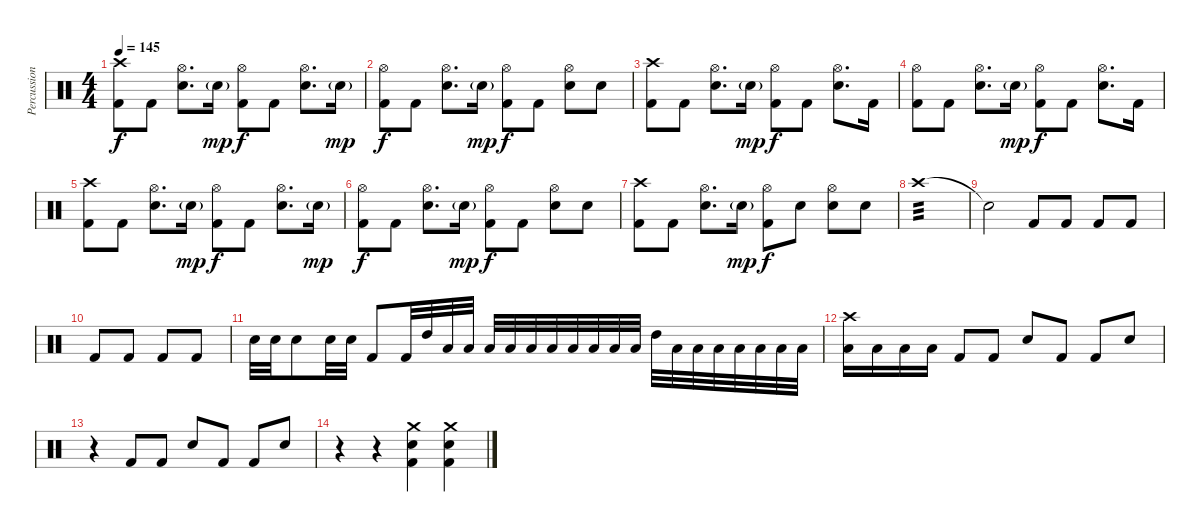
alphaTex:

\track ("Percussion" "Percussion") {instrument percussion}
\staff {score}
\articulation defaults
\ts (4 4)
\tempo 145
\clef neutral
\ks c
("Crash high (hit)" "Kick (hit) 2").8{dy f} "Kick (hit) 2".8 ("Hi-Hat (open)" "Electric Snare (hit)").8{d} "Electric Snare (hit)"{g}.16{dy mp} ("Hi-Hat (open)" "Kick (hit) 2").8{dy f} "Kick (hit) 2".8 ("Hi-Hat (open)" "Electric Snare (hit)").8{d} "Electric Snare (hit)"{g}.16{dy mp} |
("Hi-Hat (open)" "Kick (hit) 2").8{dy f} "Kick (hit) 2".8 ("Hi-Hat (open)" "Electric Snare (hit)").8{d} "Electric Snare (hit)"{g}.16{dy mp} ("Hi-Hat (open)" "Kick (hit) 2").8{dy f} "Kick (hit) 2".8 ("Hi-Hat (open)" "Electric Snare (hit)").8 "Electric Snare (hit)".8 |
("Crash high (hit)" "Kick (hit) 2").8 "Kick (hit) 2".8 ("Hi-Hat (open)" "Electric Snare (hit)").8{d} "Electric Snare (hit)"{g}.16{dy mp} ("Hi-Hat (open)" "Kick (hit) 2").8{dy f} "Kick (hit) 2".8 ("Hi-Hat (open)" "Electric Snare (hit)").8{d} "Kick (hit) 2".16 |
("Hi-Hat (open)" "Kick (hit) 2").8 "Kick (hit) 2".8 ("Hi-Hat (open)" "Electric Snare (hit)").8{d} "Electric Snare (hit)"{g}.16{dy mp} ("Hi-Hat (open)" "Kick (hit) 2").8{dy f} "Kick (hit) 2".8 ("Hi-Hat (open)" "Electric Snare (hit)").8{d} "Kick (hit) 2".16 |
("Crash high (hit)" "Kick (hit) 2").8 "Kick (hit) 2".8 ("Hi-Hat (open)" "Electric Snare (hit)").8{d} "Electric Snare (hit)"{g}.16{dy mp} ("Hi-Hat (open)" "Kick (hit) 2").8{dy f} "Kick (hit) 2".8 ("Hi-Hat (open)" "Electric Snare (hit)").8{d} "Electric Snare (hit)"{g}.16{dy mp} |
("Hi-Hat (open)" "Kick (hit) 2").8{dy f} "Kick (hit) 2".8 ("Hi-Hat (open)" "Electric Snare (hit)").8{d} "Electric Snare (hit)"{g}.16{dy mp} ("Hi-Hat (open)" "Kick (hit) 2").8{dy f} "Kick (hit) 2".8 ("Hi-Hat (open)" "Electric Snare (hit)").8 "Electric Snare (hit)".8 |
("Crash high (hit)" "Kick (hit) 2").8 "Kick (hit) 2".8 ("Hi-Hat (open)" "Electric Snare (hit)").8{d} "Electric Snare (hit)"{g}.16{dy mp} ("Hi-Hat (open)" "Kick (hit) 2").8{dy f} "Electric Snare (hit)".8 ("Hi-Hat (open)" "Electric Snare (hit)").8 "Electric Snare (hit)".8 |
"Crash high (hit)".1{tp 3} |
"Snare (hit)"{t}.2 "Kick (hit) 2".8 "Kick (hit) 2".8 "Kick (hit) 2".8 "Kick (hit) 2".8 |
"Kick (hit) 2".8 "Kick (hit) 2".8 "Kick (hit) 2".8 "Kick (hit) 2".8 |
"Electric Snare (hit)".32 "Electric Snare (hit)".32 "Electric Snare (hit)".8 "Electric Snare (hit)".32 "Electric Snare (hit)".32 "Kick (hit) 2".8 "Kick (hit) 2".32 "High Tom (hit)".32 "Low Tom (hit)".32 "Low Tom (hit)".32 "Low Tom (hit)".32 "Low Tom (hit)".32 "Low Tom (hit)".32 "Low Tom (hit)".32 "Low Tom (hit)".32 "Low Tom (hit)".32 "Low Tom (hit)".32 "Low Tom (hit)".32 "High Tom (hit)".32 "Low Tom (hit)".32 "Low Tom (hit)".32 "Low Tom (hit)".32 "Low Tom (hit)".32 "Low Tom (hit)".32 "Low Tom (hit)".32 "Low Tom (hit)".32 |
("Crash high (hit)" "Low Tom (hit)").16 "Low Tom (hit)".16 "Low Tom (hit)".16 "Low Tom (hit)".16 "Kick (hit) 2".8 "Kick (hit) 2".8 "Electric Snare (hit)".8 "Kick (hit) 2".8 "Kick (hit) 2".8 "Electric Snare (hit)".8 |
r.4 "Kick (hit) 2".8 "Kick (hit) 2".8 "Electric Snare (hit)".8 "Kick (hit) 2".8 "Kick (hit) 2".8 "Electric Snare (hit)".8 |
r.4 r.4 ("Crash medium (hit)" "Electric Snare (hit)" "Kick (hit) 2").4 ("Crash medium (hit)" "Electric Snare (hit)" "Kick (hit) 2").4
